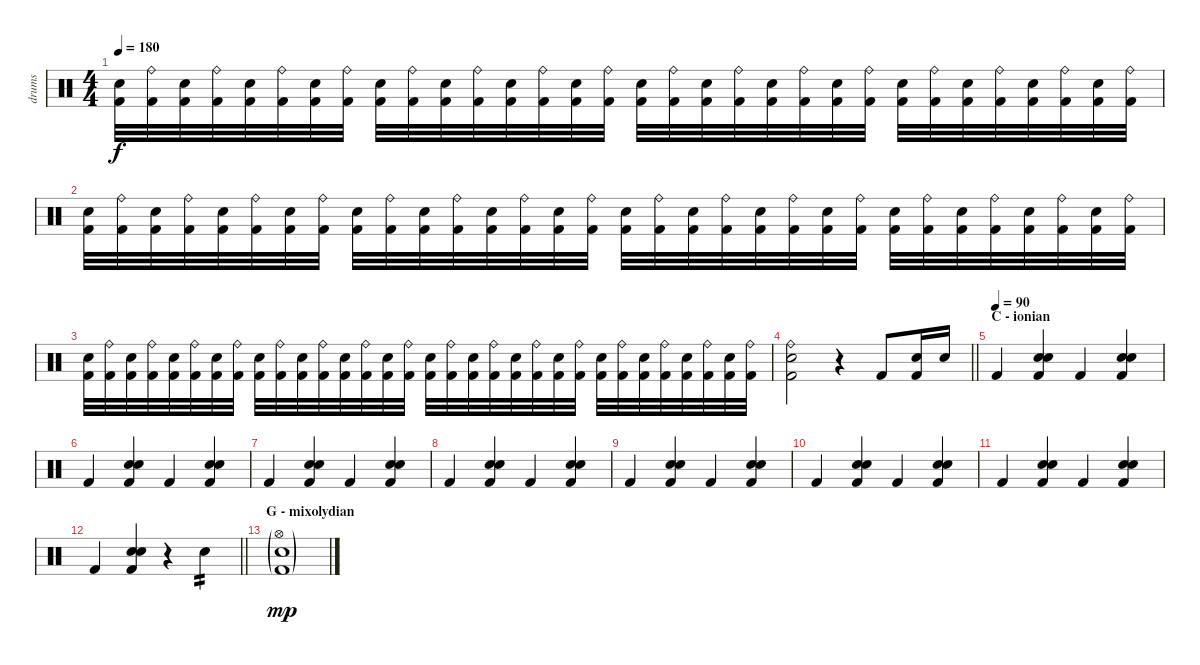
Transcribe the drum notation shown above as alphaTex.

\track ("drums" "drums") {instrument percussion}
\staff {score}
\articulation defaults
\ts (4 4)
\tempo 180
\clef neutral
\ks c
("Kick (hit) 2" "Electric Snare (hit)").32{dy f} ("Kick (hit) 2" "Ride (bell)").32 ("Kick (hit) 2" "Electric Snare (hit)").32 ("Kick (hit) 2" "Ride (bell)").32 ("Kick (hit) 2" "Electric Snare (hit)").32 ("Kick (hit) 2" "Ride (bell)").32 ("Kick (hit) 2" "Electric Snare (hit)").32 ("Kick (hit) 2" "Ride (bell)").32 ("Kick (hit) 2" "Electric Snare (hit)").32 ("Kick (hit) 2" "Ride (bell)").32 ("Kick (hit) 2" "Electric Snare (hit)").32 ("Kick (hit) 2" "Ride (bell)").32 ("Kick (hit) 2" "Electric Snare (hit)").32 ("Kick (hit) 2" "Ride (bell)").32 ("Kick (hit) 2" "Electric Snare (hit)").32 ("Kick (hit) 2" "Ride (bell)").32 ("Kick (hit) 2" "Electric Snare (hit)").32 ("Kick (hit) 2" "Ride (bell)").32 ("Kick (hit) 2" "Electric Snare (hit)").32 ("Kick (hit) 2" "Ride (bell)").32 ("Kick (hit) 2" "Electric Snare (hit)").32 ("Kick (hit) 2" "Ride (bell)").32 ("Kick (hit) 2" "Electric Snare (hit)").32 ("Kick (hit) 2" "Ride (bell)").32 ("Kick (hit) 2" "Electric Snare (hit)").32 ("Kick (hit) 2" "Ride (bell)").32 ("Kick (hit) 2" "Electric Snare (hit)").32 ("Kick (hit) 2" "Ride (bell)").32 ("Kick (hit) 2" "Electric Snare (hit)").32 ("Kick (hit) 2" "Ride (bell)").32 ("Kick (hit) 2" "Electric Snare (hit)").32 ("Kick (hit) 2" "Ride (bell)").32 |
("Kick (hit) 2" "Electric Snare (hit)").32 ("Kick (hit) 2" "Ride (bell)").32 ("Kick (hit) 2" "Electric Snare (hit)").32 ("Kick (hit) 2" "Ride (bell)").32 ("Kick (hit) 2" "Electric Snare (hit)").32 ("Kick (hit) 2" "Ride (bell)").32 ("Kick (hit) 2" "Electric Snare (hit)").32 ("Kick (hit) 2" "Ride (bell)").32 ("Kick (hit) 2" "Electric Snare (hit)").32 ("Kick (hit) 2" "Ride (bell)").32 ("Kick (hit) 2" "Electric Snare (hit)").32 ("Kick (hit) 2" "Ride (bell)").32 ("Kick (hit) 2" "Electric Snare (hit)").32 ("Kick (hit) 2" "Ride (bell)").32 ("Kick (hit) 2" "Electric Snare (hit)").32 ("Kick (hit) 2" "Ride (bell)").32 ("Kick (hit) 2" "Electric Snare (hit)").32 ("Kick (hit) 2" "Ride (bell)").32 ("Kick (hit) 2" "Electric Snare (hit)").32 ("Kick (hit) 2" "Ride (bell)").32 ("Kick (hit) 2" "Electric Snare (hit)").32 ("Kick (hit) 2" "Ride (bell)").32 ("Kick (hit) 2" "Electric Snare (hit)").32 ("Kick (hit) 2" "Ride (bell)").32 ("Kick (hit) 2" "Electric Snare (hit)").32 ("Kick (hit) 2" "Ride (bell)").32 ("Kick (hit) 2" "Electric Snare (hit)").32 ("Kick (hit) 2" "Ride (bell)").32 ("Kick (hit) 2" "Electric Snare (hit)").32 ("Kick (hit) 2" "Ride (bell)").32 ("Kick (hit) 2" "Electric Snare (hit)").32 ("Kick (hit) 2" "Ride (bell)").32 |
("Kick (hit) 2" "Electric Snare (hit)").32 ("Kick (hit) 2" "Ride (bell)").32 ("Kick (hit) 2" "Electric Snare (hit)").32 ("Kick (hit) 2" "Ride (bell)").32 ("Kick (hit) 2" "Electric Snare (hit)").32 ("Kick (hit) 2" "Ride (bell)").32 ("Kick (hit) 2" "Electric Snare (hit)").32 ("Kick (hit) 2" "Ride (bell)").32 ("Kick (hit) 2" "Electric Snare (hit)").32 ("Kick (hit) 2" "Ride (bell)").32 ("Kick (hit) 2" "Electric Snare (hit)").32 ("Kick (hit) 2" "Ride (bell)").32 ("Kick (hit) 2" "Electric Snare (hit)").32 ("Kick (hit) 2" "Ride (bell)").32 ("Kick (hit) 2" "Electric Snare (hit)").32 ("Kick (hit) 2" "Ride (bell)").32 ("Kick (hit) 2" "Electric Snare (hit)").32 ("Kick (hit) 2" "Ride (bell)").32 ("Kick (hit) 2" "Electric Snare (hit)").32 ("Kick (hit) 2" "Ride (bell)").32 ("Kick (hit) 2" "Electric Snare (hit)").32 ("Kick (hit) 2" "Ride (bell)").32 ("Kick (hit) 2" "Electric Snare (hit)").32 ("Kick (hit) 2" "Ride (bell)").32 ("Kick (hit) 2" "Electric Snare (hit)").32 ("Kick (hit) 2" "Ride (bell)").32 ("Kick (hit) 2" "Electric Snare (hit)").32 ("Kick (hit) 2" "Ride (bell)").32 ("Kick (hit) 2" "Electric Snare (hit)").32 ("Kick (hit) 2" "Ride (bell)").32 ("Kick (hit) 2" "Electric Snare (hit)").32 ("Kick (hit) 2" "Ride (bell)").32 |
\barLineRight lightlight
("Kick (hit) 2" "Electric Snare (hit)" "Ride (bell)").2 r.4 "Kick (hit) 2".8 ("Kick (hit) 2" "Electric Snare (hit)").16 "Electric Snare (hit)".16 |
\section ("" "C - ionian")
\tempo (90)
"Kick (hit) 2".4 ("Kick (hit) 2" "Electric Snare (hit)" "Electric Snare (hit)").4 "Kick (hit) 2".4 ("Kick (hit) 2" "Electric Snare (hit)" "Electric Snare (hit)").4 |
"Kick (hit) 2".4 ("Kick (hit) 2" "Electric Snare (hit)" "Electric Snare (hit)").4 "Kick (hit) 2".4 ("Kick (hit) 2" "Electric Snare (hit)" "Electric Snare (hit)").4 |
"Kick (hit) 2".4 ("Kick (hit) 2" "Electric Snare (hit)" "Electric Snare (hit)").4 "Kick (hit) 2".4 ("Kick (hit) 2" "Electric Snare (hit)" "Electric Snare (hit)").4 |
"Kick (hit) 2".4 ("Kick (hit) 2" "Electric Snare (hit)" "Electric Snare (hit)").4 "Kick (hit) 2".4 ("Kick (hit) 2" "Electric Snare (hit)" "Electric Snare (hit)").4 |
"Kick (hit) 2".4 ("Kick (hit) 2" "Electric Snare (hit)" "Electric Snare (hit)").4 "Kick (hit) 2".4 ("Kick (hit) 2" "Electric Snare (hit)" "Electric Snare (hit)").4 |
"Kick (hit) 2".4 ("Kick (hit) 2" "Electric Snare (hit)" "Electric Snare (hit)").4 "Kick (hit) 2".4 ("Kick (hit) 2" "Electric Snare (hit)" "Electric Snare (hit)").4 |
"Kick (hit) 2".4 ("Kick (hit) 2" "Electric Snare (hit)" "Electric Snare (hit)").4 "Kick (hit) 2".4 ("Kick (hit) 2" "Electric Snare (hit)" "Electric Snare (hit)").4 |
\barLineRight lightlight "Kick (hit) 2".4
("Kick (hit) 2" "Electric Snare (hit)" "Electric Snare (hit)").4 r.4 "Snare (hit) 2".4{tp 2} |
\section ("" "G - mixolydian")
("Kick (hit) 2"{g} "Snare (hit) 2"{g} "Hi-Hat (open)"{g}).1{dy mp}
